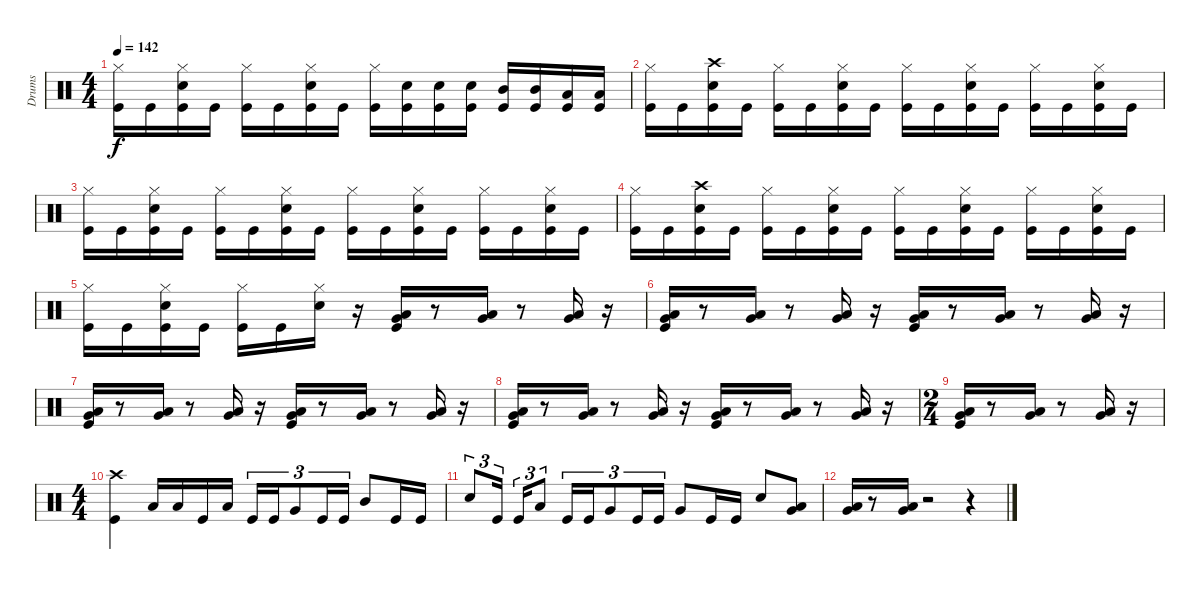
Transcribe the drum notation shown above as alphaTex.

\track ("Drums" "Drums") {instrument percussion}
\staff {score}
\articulation defaults
\ts (4 4)
\tempo 142
\clef neutral
\ks c
("Hi-Hat (closed)" "Kick (hit)").16{dy f} "Kick (hit)".16 ("Kick (hit)" "Snare (hit) 2" "Hi-Hat (closed)").16 "Kick (hit)".16 ("Kick (hit)" "Hi-Hat (closed)").16 "Kick (hit)".16 ("Kick (hit)" "Snare (hit) 2" "Hi-Hat (closed)").16 "Kick (hit)".16 ("Hi-Hat (closed)" "Kick (hit)").16 ("Snare (hit) 2" "Kick (hit)").16 ("Kick (hit)" "Snare (hit) 2").16 ("Kick (hit)" "Snare (hit) 2").16 ("Kick (hit)" "Mid Tom (hit)").16 ("Kick (hit)" "Mid Tom (hit)").16 ("Kick (hit)" "Low Tom (hit)").16 ("Kick (hit)" "Low Tom (hit)").16 |
("Hi-Hat (closed)" "Kick (hit)").16 "Kick (hit)".16 ("Kick (hit)" "Crash high (hit)" "Snare (hit) 2").16 "Kick (hit)".16 ("Kick (hit)" "Hi-Hat (closed)").16 "Kick (hit)".16 ("Kick (hit)" "Snare (hit) 2" "Hi-Hat (closed)").16 "Kick (hit)".16 ("Kick (hit)" "Hi-Hat (closed)").16 "Kick (hit)".16 ("Kick (hit)" "Snare (hit) 2" "Hi-Hat (closed)").16 "Kick (hit)".16 ("Kick (hit)" "Hi-Hat (closed)").16 "Kick (hit)".16 ("Kick (hit)" "Snare (hit) 2" "Hi-Hat (closed)").16 "Kick (hit)".16 |
("Hi-Hat (closed)" "Kick (hit)").16 "Kick (hit)".16 ("Kick (hit)" "Snare (hit) 2" "Hi-Hat (closed)").16 "Kick (hit)".16 ("Kick (hit)" "Hi-Hat (closed)").16 "Kick (hit)".16 ("Kick (hit)" "Snare (hit) 2" "Hi-Hat (closed)").16 "Kick (hit)".16 ("Hi-Hat (closed)" "Kick (hit)").16 "Kick (hit)".16 ("Kick (hit)" "Snare (hit) 2" "Hi-Hat (closed)").16 "Kick (hit)".16 ("Kick (hit)" "Hi-Hat (closed)").16 "Kick (hit)".16 ("Kick (hit)" "Hi-Hat (closed)" "Snare (hit) 2").16 "Kick (hit)".16 |
("Hi-Hat (closed)" "Kick (hit)").16 "Kick (hit)".16 ("Kick (hit)" "Crash high (hit)" "Snare (hit) 2").16 "Kick (hit)".16 ("Kick (hit)" "Hi-Hat (closed)").16 "Kick (hit)".16 ("Kick (hit)" "Snare (hit) 2" "Hi-Hat (closed)").16 "Kick (hit)".16 ("Hi-Hat (closed)" "Kick (hit)").16 "Kick (hit)".16 ("Snare (hit) 2" "Hi-Hat (closed)" "Kick (hit)").16 "Kick (hit)".16 ("Hi-Hat (closed)" "Kick (hit)").16 "Kick (hit)".16 ("Kick (hit)" "Snare (hit) 2" "Hi-Hat (closed)").16 "Kick (hit)".16 |
("Hi-Hat (closed)" "Kick (hit)").16 "Kick (hit)".16 ("Kick (hit)" "Snare (hit) 2" "Hi-Hat (closed)").16 "Kick (hit)".16 ("Kick (hit)" "Hi-Hat (closed)").16 "Kick (hit)".16 ("Snare (hit) 2" "Hi-Hat (closed)").16 r.16 ("Low Tom (hit)" "Very Low Tom (hit)" "Kick (hit)").16 r.8 ("Very Low Tom (hit)" "Low Tom (hit)").16 r.8 ("Very Low Tom (hit)" "Low Tom (hit)").16 r.16 |
("Low Tom (hit)" "Very Low Tom (hit)" "Kick (hit)").16 r.8 ("Very Low Tom (hit)" "Low Tom (hit)").16 r.8 ("Very Low Tom (hit)" "Low Tom (hit)").16 r.16 ("Low Tom (hit)" "Very Low Tom (hit)" "Kick (hit)").16 r.8 ("Very Low Tom (hit)" "Low Tom (hit)").16 r.8 ("Very Low Tom (hit)" "Low Tom (hit)").16 r.16 |
("Low Tom (hit)" "Very Low Tom (hit)" "Kick (hit)").16 r.8 ("Very Low Tom (hit)" "Low Tom (hit)").16 r.8 ("Very Low Tom (hit)" "Low Tom (hit)").16 r.16 ("Low Tom (hit)" "Very Low Tom (hit)" "Kick (hit)").16 r.8 ("Very Low Tom (hit)" "Low Tom (hit)").16 r.8 ("Very Low Tom (hit)" "Low Tom (hit)").16 r.16 |
("Low Tom (hit)" "Very Low Tom (hit)" "Kick (hit)").16 r.8 ("Very Low Tom (hit)" "Low Tom (hit)").16 r.8 ("Very Low Tom (hit)" "Low Tom (hit)").16 r.16 ("Low Tom (hit)" "Very Low Tom (hit)" "Kick (hit)").16 r.8 ("Very Low Tom (hit)" "Low Tom (hit)").16 r.8 ("Very Low Tom (hit)" "Low Tom (hit)").16 r.16 |
\ts (2 4)
("Low Tom (hit)" "Very Low Tom (hit)" "Kick (hit)").16 r.8 ("Very Low Tom (hit)" "Low Tom (hit)").16 r.8 ("Very Low Tom (hit)" "Low Tom (hit)").16 r.16 |
\ts (4 4)
("Crash high (hit)" "Kick (hit)").4 "Low Floor Tom (hit)".16 "Low Floor Tom (hit)".16 "Kick (hit)".16 "Low Tom (hit)".16 "Kick (hit)".16{tu (3 2)} "Kick (hit)".16{tu (3 2)} "Very Low Tom (hit)".8{tu (3 2)} "Kick (hit)".16{tu (3 2)} "Kick (hit)".16{tu (3 2)} "Mid Tom (hit)".8 "Kick (hit)".16 "Kick (hit)".16 |
"Snare (hit) 2".8{tu (3 2)} "Kick (hit)".16{tu (3 2)} "Kick (hit)".16{tu (3 2)} "Low Tom (hit)".8{tu (3 2)} "Kick (hit)".16{tu (3 2)} "Kick (hit)".16{tu (3 2)} "Very Low Tom (hit)".8{tu (3 2)} "Kick (hit)".16{tu (3 2)} "Kick (hit)".16{tu (3 2)} "Very Low Tom (hit)".8 "Kick (hit)".16 "Kick (hit)".16 "Snare (hit) 2".8 ("Low Tom (hit)" "Very Low Tom (hit)").8 |
("Low Tom (hit)" "Very Low Tom (hit)").16 r.8 ("Low Tom (hit)" "Very Low Tom (hit)").16 r.2 r.4
